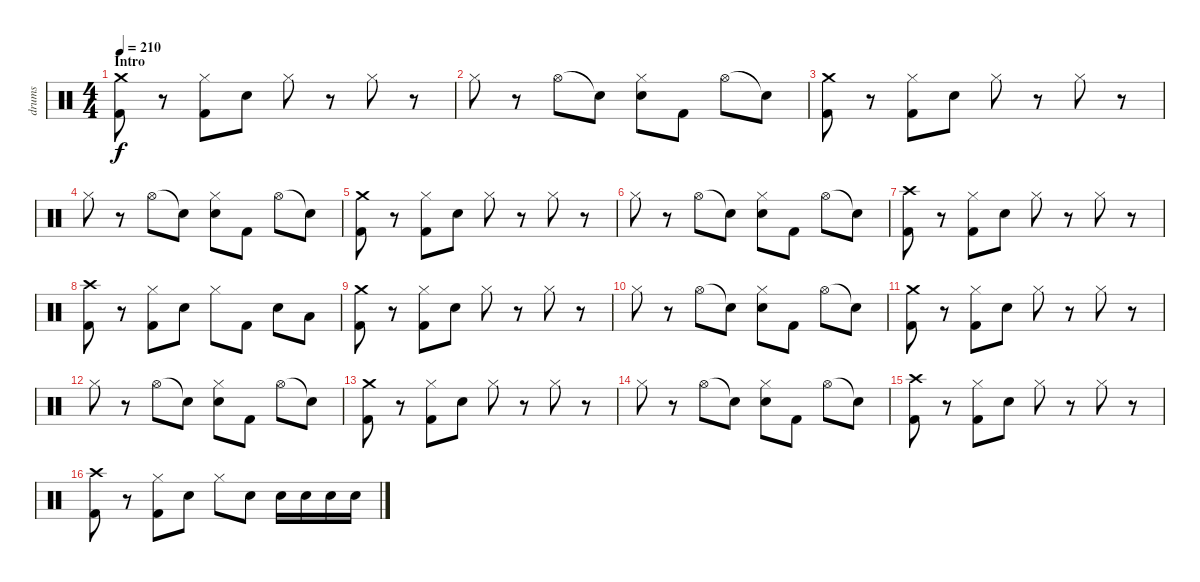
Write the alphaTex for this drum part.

\track ("drums" "drums") {instrument percussion}
\staff {score}
\articulation defaults
\ts (4 4)
\section ("" "Intro")
\tempo 210
\clef neutral
\ks c
("Crash medium (hit)" "Kick (hit) 2").8{dy f} r.8 ("Hi-Hat (closed)" "Kick (hit) 2").8 "Electric Snare (hit)".8 "Hi-Hat (closed)".8 r.8 "Hi-Hat (closed)".8 r.8 |
"Hi-Hat (closed)".8 r.8 "Hi-Hat (open)".8 "Snare (hit)"{t}.8 ("Hi-Hat (closed)" "Electric Snare (hit)").8 "Kick (hit) 2".8 "Hi-Hat (open)".8 "Snare (hit)"{t}.8 |
("Crash medium (hit)" "Kick (hit) 2").8 r.8 ("Hi-Hat (closed)" "Kick (hit) 2").8 "Electric Snare (hit)".8 "Hi-Hat (closed)".8 r.8 "Hi-Hat (closed)".8 r.8 |
"Hi-Hat (closed)".8 r.8 "Hi-Hat (open)".8 "Snare (hit)"{t}.8 ("Hi-Hat (closed)" "Electric Snare (hit)").8 "Kick (hit) 2".8 "Hi-Hat (open)".8 "Snare (hit)"{t}.8 |
("Crash medium (hit)" "Kick (hit) 2").8 r.8 ("Hi-Hat (closed)" "Kick (hit) 2").8 "Electric Snare (hit)".8 "Hi-Hat (closed)".8 r.8 "Hi-Hat (closed)".8 r.8 |
"Hi-Hat (closed)".8 r.8 "Hi-Hat (open)".8 "Snare (hit)"{t}.8 ("Hi-Hat (closed)" "Electric Snare (hit)").8 "Kick (hit) 2".8 "Hi-Hat (open)".8 "Snare (hit)"{t}.8 |
("Crash high (hit)" "Kick (hit) 2").8 r.8 ("Hi-Hat (closed)" "Kick (hit) 2").8 "Electric Snare (hit)".8 "Hi-Hat (closed)".8 r.8 "Hi-Hat (closed)".8 r.8 |
("Crash high (hit)" "Kick (hit) 2").8 r.8 ("Hi-Hat (closed)" "Kick (hit) 2").8 "Electric Snare (hit)".8 "Hi-Hat (closed)".8 "Kick (hit) 2".8 "Electric Snare (hit)".8 "Low Tom (hit)".8 |
("Crash medium (hit)" "Kick (hit) 2").8 r.8 ("Hi-Hat (closed)" "Kick (hit) 2").8 "Electric Snare (hit)".8 "Hi-Hat (closed)".8 r.8 "Hi-Hat (closed)".8 r.8 |
"Hi-Hat (closed)".8 r.8 "Hi-Hat (open)".8 "Snare (hit)"{t}.8 ("Hi-Hat (closed)" "Electric Snare (hit)").8 "Kick (hit) 2".8 "Hi-Hat (open)".8 "Snare (hit)"{t}.8 |
("Crash medium (hit)" "Kick (hit) 2").8 r.8 ("Hi-Hat (closed)" "Kick (hit) 2").8 "Electric Snare (hit)".8 "Hi-Hat (closed)".8 r.8 "Hi-Hat (closed)".8 r.8 |
"Hi-Hat (closed)".8 r.8 "Hi-Hat (open)".8 "Snare (hit)"{t}.8 ("Hi-Hat (closed)" "Electric Snare (hit)").8 "Kick (hit) 2".8 "Hi-Hat (open)".8 "Snare (hit)"{t}.8 |
("Crash medium (hit)" "Kick (hit) 2").8 r.8 ("Hi-Hat (closed)" "Kick (hit) 2").8 "Electric Snare (hit)".8 "Hi-Hat (closed)".8 r.8 "Hi-Hat (closed)".8 r.8 |
"Hi-Hat (closed)".8 r.8 "Hi-Hat (open)".8 "Snare (hit)"{t}.8 ("Hi-Hat (closed)" "Electric Snare (hit)").8 "Kick (hit) 2".8 "Hi-Hat (open)".8 "Snare (hit)"{t}.8 |
("Crash high (hit)" "Kick (hit) 2").8 r.8 ("Hi-Hat (closed)" "Kick (hit) 2").8 "Electric Snare (hit)".8 "Hi-Hat (closed)".8 r.8 "Hi-Hat (closed)".8 r.8 |
("Crash high (hit)" "Kick (hit) 2").8 r.8 ("Hi-Hat (closed)" "Kick (hit) 2").8 "Electric Snare (hit)".8 "Hi-Hat (closed)".8 "Electric Snare (hit)".8 "Electric Snare (hit)".16 "Electric Snare (hit)".16 "Electric Snare (hit)".16 "Electric Snare (hit)".16
